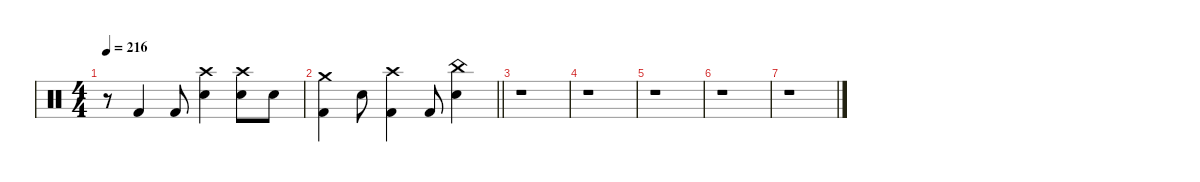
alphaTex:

\defaultSystemsLayout 4
\hideDynamics
\bracketExtendMode nobrackets
\singleTrackTrackNamePolicy hidden
\multiTrackTrackNamePolicy hidden
\firstSystemTrackNameMode fullname
\otherSystemsTrackNameOrientation horizontal
\track ("Drums" "drm.") {defaultSystemsLayout 4 instrument percussion}
\staff {score}
\articulation defaults
\ts (4 4)
\tempo 216
\clef neutral
\ks c
r.8{dy f beam Down} "Kick (hit) 2".4{beam Up} "Kick (hit) 2".8{beam Up} ("Crash high (hit)" "Snare (hit) 2").4{beam Down} ("Crash high (hit)" "Snare (hit) 2").8{beam Down} "Snare (hit) 2".8{beam Down} |
\barLineRight lightlight
("Crash medium (hit)" "Kick (hit) 2").4{beam Down} "Snare (hit) 2".8{beam Down} ("Crash high (hit)" "Kick (hit) 2").4{beam Down} "Kick (hit) 2".8{beam Up} ("China (hit)" "Snare (hit) 2").4{beam Down} |
r.1{beam Down} |
r.1{beam Down} |
r.1{beam Down} |
r.1{beam Down} |
r.1{beam Down}
